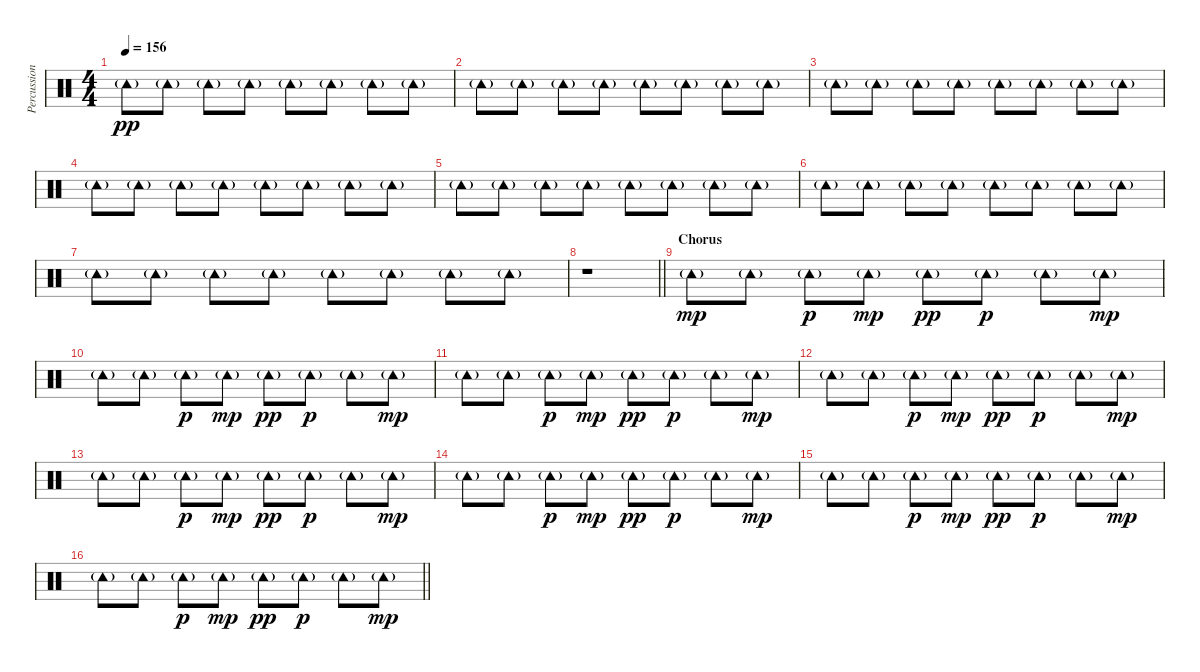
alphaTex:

\track ("Percussion 2" "Percussion") {instrument percussion}
\staff {score}
\articulation defaults
\ts (4 4)
\tempo 156
\clef neutral
\ks c "Tambourine (hit)"{g}.8{dy pp} "Tambourine (hit)"{g}.8 "Tambourine (hit)"{g}.8 "Tambourine (hit)"{g}.8 "Tambourine (hit)"{g}.8 "Tambourine (hit)"{g}.8 "Tambourine (hit)"{g}.8 "Tambourine (hit)"{g}.8
|
"Tambourine (hit)"{g}.8 "Tambourine (hit)"{g}.8 "Tambourine (hit)"{g}.8 "Tambourine (hit)"{g}.8 "Tambourine (hit)"{g}.8 "Tambourine (hit)"{g}.8 "Tambourine (hit)"{g}.8 "Tambourine (hit)"{g}.8 |
"Tambourine (hit)"{g}.8 "Tambourine (hit)"{g}.8 "Tambourine (hit)"{g}.8 "Tambourine (hit)"{g}.8 "Tambourine (hit)"{g}.8 "Tambourine (hit)"{g}.8 "Tambourine (hit)"{g}.8 "Tambourine (hit)"{g}.8 |
"Tambourine (hit)"{g}.8 "Tambourine (hit)"{g}.8 "Tambourine (hit)"{g}.8 "Tambourine (hit)"{g}.8 "Tambourine (hit)"{g}.8 "Tambourine (hit)"{g}.8 "Tambourine (hit)"{g}.8 "Tambourine (hit)"{g}.8 |
"Tambourine (hit)"{g}.8 "Tambourine (hit)"{g}.8 "Tambourine (hit)"{g}.8 "Tambourine (hit)"{g}.8 "Tambourine (hit)"{g}.8 "Tambourine (hit)"{g}.8 "Tambourine (hit)"{g}.8 "Tambourine (hit)"{g}.8 |
"Tambourine (hit)"{g}.8 "Tambourine (hit)"{g}.8 "Tambourine (hit)"{g}.8 "Tambourine (hit)"{g}.8 "Tambourine (hit)"{g}.8 "Tambourine (hit)"{g}.8 "Tambourine (hit)"{g}.8 "Tambourine (hit)"{g}.8 |
"Tambourine (hit)"{g}.8 "Tambourine (hit)"{g}.8 "Tambourine (hit)"{g}.8 "Tambourine (hit)"{g}.8 "Tambourine (hit)"{g}.8 "Tambourine (hit)"{g}.8 "Tambourine (hit)"{g}.8 "Tambourine (hit)"{g}.8 |
\barLineRight lightlight
r.1 |
\section ("" "Chorus")
"Tambourine (hit)"{g}.8{dy mp} "Tambourine (hit)"{g}.8 "Tambourine (hit)"{g}.8{dy p} "Tambourine (hit)"{g}.8{dy mp} "Tambourine (hit)"{g}.8{dy pp} "Tambourine (hit)"{g}.8{dy p} "Tambourine (hit)"{g}.8 "Tambourine (hit)"{g}.8{dy mp} |
"Tambourine (hit)"{g}.8 "Tambourine (hit)"{g}.8 "Tambourine (hit)"{g}.8{dy p} "Tambourine (hit)"{g}.8{dy mp} "Tambourine (hit)"{g}.8{dy pp} "Tambourine (hit)"{g}.8{dy p} "Tambourine (hit)"{g}.8 "Tambourine (hit)"{g}.8{dy mp} |
"Tambourine (hit)"{g}.8 "Tambourine (hit)"{g}.8 "Tambourine (hit)"{g}.8{dy p} "Tambourine (hit)"{g}.8{dy mp} "Tambourine (hit)"{g}.8{dy pp} "Tambourine (hit)"{g}.8{dy p} "Tambourine (hit)"{g}.8 "Tambourine (hit)"{g}.8{dy mp} |
"Tambourine (hit)"{g}.8 "Tambourine (hit)"{g}.8 "Tambourine (hit)"{g}.8{dy p} "Tambourine (hit)"{g}.8{dy mp} "Tambourine (hit)"{g}.8{dy pp} "Tambourine (hit)"{g}.8{dy p} "Tambourine (hit)"{g}.8 "Tambourine (hit)"{g}.8{dy mp} |
"Tambourine (hit)"{g}.8 "Tambourine (hit)"{g}.8 "Tambourine (hit)"{g}.8{dy p} "Tambourine (hit)"{g}.8{dy mp} "Tambourine (hit)"{g}.8{dy pp} "Tambourine (hit)"{g}.8{dy p} "Tambourine (hit)"{g}.8 "Tambourine (hit)"{g}.8{dy mp} |
"Tambourine (hit)"{g}.8 "Tambourine (hit)"{g}.8 "Tambourine (hit)"{g}.8{dy p} "Tambourine (hit)"{g}.8{dy mp} "Tambourine (hit)"{g}.8{dy pp} "Tambourine (hit)"{g}.8{dy p} "Tambourine (hit)"{g}.8 "Tambourine (hit)"{g}.8{dy mp} |
"Tambourine (hit)"{g}.8 "Tambourine (hit)"{g}.8 "Tambourine (hit)"{g}.8{dy p} "Tambourine (hit)"{g}.8{dy mp} "Tambourine (hit)"{g}.8{dy pp} "Tambourine (hit)"{g}.8{dy p} "Tambourine (hit)"{g}.8 "Tambourine (hit)"{g}.8{dy mp} |
\barLineRight lightlight "Tambourine (hit)"{g}.8 "Tambourine (hit)"{g}.8 "Tambourine (hit)"{g}.8{dy p} "Tambourine (hit)"{g}.8{dy mp} "Tambourine (hit)"{g}.8{dy pp} "Tambourine (hit)"{g}.8{dy p} "Tambourine (hit)"{g}.8 "Tambourine (hit)"{g}.8{dy mp}
